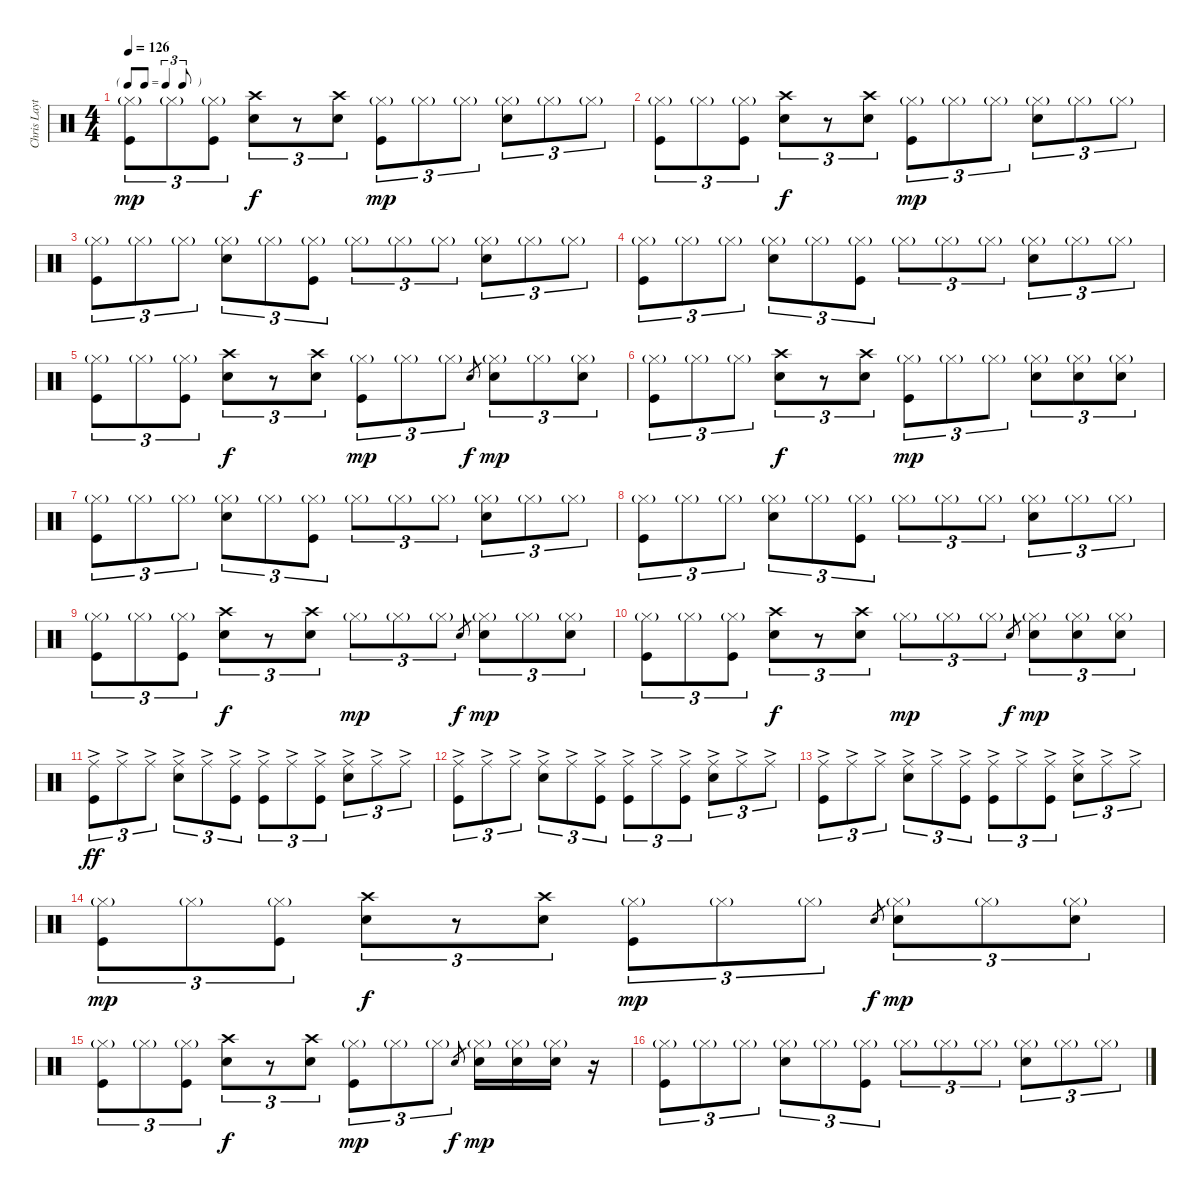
\track ("Chris Layton" "Chris Layt") {instrument percussion}
\staff {score}
\articulation defaults
\ts (4 4)
\tf triplet8th
\tempo 126
\clef neutral
\ks c
("Hi-Hat (closed)"{g} "Kick (hit)").8{tu (3 2) dy mp} "Hi-Hat (closed)"{g}.8{tu (3 2)} ("Hi-Hat (closed)"{g} "Kick (hit)").8{tu (3 2)} ("Crash high (hit)" "Electric Snare (hit)").8{tu (3 2) dy f} r.8{tu (3 2)} ("Crash high (hit)" "Electric Snare (hit)").8{tu (3 2)} ("Hi-Hat (closed)"{g} "Kick (hit)").8{tu (3 2) dy mp} "Hi-Hat (closed)"{g}.8{tu (3 2)} "Hi-Hat (closed)"{g}.8{tu (3 2)} ("Hi-Hat (closed)"{g} "Electric Snare (hit)").8{tu (3 2)} "Hi-Hat (closed)"{g}.8{tu (3 2)} "Hi-Hat (closed)"{g}.8{tu (3 2)} |
("Hi-Hat (closed)"{g} "Kick (hit)").8{tu (3 2)} "Hi-Hat (closed)"{g}.8{tu (3 2)} ("Hi-Hat (closed)"{g} "Kick (hit)").8{tu (3 2)} ("Crash high (hit)" "Electric Snare (hit)").8{tu (3 2) dy f} r.8{tu (3 2)} ("Crash high (hit)" "Electric Snare (hit)").8{tu (3 2)} ("Hi-Hat (closed)"{g} "Kick (hit)").8{tu (3 2) dy mp} "Hi-Hat (closed)"{g}.8{tu (3 2)} "Hi-Hat (closed)"{g}.8{tu (3 2)} ("Hi-Hat (closed)"{g} "Electric Snare (hit)").8{tu (3 2)} "Hi-Hat (closed)"{g}.8{tu (3 2)} "Hi-Hat (closed)"{g}.8{tu (3 2)} |
("Hi-Hat (closed)"{g} "Kick (hit)").8{tu (3 2)} "Hi-Hat (closed)"{g}.8{tu (3 2)} "Hi-Hat (closed)"{g}.8{tu (3 2)} ("Hi-Hat (closed)"{g} "Electric Snare (hit)").8{tu (3 2)} "Hi-Hat (closed)"{g}.8{tu (3 2)} ("Hi-Hat (closed)"{g} "Kick (hit)").8{tu (3 2)} "Hi-Hat (closed)"{g}.8{tu (3 2)} "Hi-Hat (closed)"{g}.8{tu (3 2)} "Hi-Hat (closed)"{g}.8{tu (3 2)} ("Hi-Hat (closed)"{g} "Electric Snare (hit)").8{tu (3 2)} "Hi-Hat (closed)"{g}.8{tu (3 2)} "Hi-Hat (closed)"{g}.8{tu (3 2)} |
("Hi-Hat (closed)"{g} "Kick (hit)").8{tu (3 2)} "Hi-Hat (closed)"{g}.8{tu (3 2)} "Hi-Hat (closed)"{g}.8{tu (3 2)} ("Hi-Hat (closed)"{g} "Electric Snare (hit)").8{tu (3 2)} "Hi-Hat (closed)"{g}.8{tu (3 2)} ("Hi-Hat (closed)"{g} "Kick (hit)").8{tu (3 2)} "Hi-Hat (closed)"{g}.8{tu (3 2)} "Hi-Hat (closed)"{g}.8{tu (3 2)} "Hi-Hat (closed)"{g}.8{tu (3 2)} ("Hi-Hat (closed)"{g} "Electric Snare (hit)").8{tu (3 2)} "Hi-Hat (closed)"{g}.8{tu (3 2)} "Hi-Hat (closed)"{g}.8{tu (3 2)} |
("Hi-Hat (closed)"{g} "Kick (hit)").8{tu (3 2)} "Hi-Hat (closed)"{g}.8{tu (3 2)} ("Hi-Hat (closed)"{g} "Kick (hit)").8{tu (3 2)} ("Crash high (hit)" "Electric Snare (hit)").8{tu (3 2) dy f} r.8{tu (3 2)} ("Crash high (hit)" "Electric Snare (hit)").8{tu (3 2)} ("Hi-Hat (closed)"{g} "Kick (hit)").8{tu (3 2) dy mp} "Hi-Hat (closed)"{g}.8{tu (3 2)} "Hi-Hat (closed)"{g}.8{tu (3 2)} "Electric Snare (hit)".8{gr dy f} ("Hi-Hat (closed)"{g} "Electric Snare (hit)").8{tu (3 2) dy mp} "Hi-Hat (closed)"{g}.8{tu (3 2)} ("Hi-Hat (closed)"{g} "Electric Snare (hit)").8{tu (3 2)} |
("Hi-Hat (closed)"{g} "Kick (hit)").8{tu (3 2)} "Hi-Hat (closed)"{g}.8{tu (3 2)} "Hi-Hat (closed)"{g}.8{tu (3 2)} ("Crash high (hit)" "Electric Snare (hit)").8{tu (3 2) dy f} r.8{tu (3 2)} ("Crash high (hit)" "Electric Snare (hit)").8{tu (3 2)} ("Hi-Hat (closed)"{g} "Kick (hit)").8{tu (3 2) dy mp} "Hi-Hat (closed)"{g}.8{tu (3 2)} "Hi-Hat (closed)"{g}.8{tu (3 2)} ("Hi-Hat (closed)"{g} "Electric Snare (hit)").8{tu (3 2)} ("Hi-Hat (closed)"{g} "Electric Snare (hit)").8{tu (3 2)} ("Hi-Hat (closed)"{g} "Electric Snare (hit)").8{tu (3 2)} |
("Hi-Hat (closed)"{g} "Kick (hit)").8{tu (3 2)} "Hi-Hat (closed)"{g}.8{tu (3 2)} "Hi-Hat (closed)"{g}.8{tu (3 2)} ("Hi-Hat (closed)"{g} "Electric Snare (hit)").8{tu (3 2)} "Hi-Hat (closed)"{g}.8{tu (3 2)} ("Hi-Hat (closed)"{g} "Kick (hit)").8{tu (3 2)} "Hi-Hat (closed)"{g}.8{tu (3 2)} "Hi-Hat (closed)"{g}.8{tu (3 2)} "Hi-Hat (closed)"{g}.8{tu (3 2)} ("Hi-Hat (closed)"{g} "Electric Snare (hit)").8{tu (3 2)} "Hi-Hat (closed)"{g}.8{tu (3 2)} "Hi-Hat (closed)"{g}.8{tu (3 2)} |
("Hi-Hat (closed)"{g} "Kick (hit)").8{tu (3 2)} "Hi-Hat (closed)"{g}.8{tu (3 2)} "Hi-Hat (closed)"{g}.8{tu (3 2)} ("Hi-Hat (closed)"{g} "Electric Snare (hit)").8{tu (3 2)} "Hi-Hat (closed)"{g}.8{tu (3 2)} ("Hi-Hat (closed)"{g} "Kick (hit)").8{tu (3 2)} "Hi-Hat (closed)"{g}.8{tu (3 2)} "Hi-Hat (closed)"{g}.8{tu (3 2)} "Hi-Hat (closed)"{g}.8{tu (3 2)} ("Hi-Hat (closed)"{g} "Electric Snare (hit)").8{tu (3 2)} "Hi-Hat (closed)"{g}.8{tu (3 2)} "Hi-Hat (closed)"{g}.8{tu (3 2)} |
("Hi-Hat (closed)"{g} "Kick (hit)").8{tu (3 2)} "Hi-Hat (closed)"{g}.8{tu (3 2)} ("Hi-Hat (closed)"{g} "Kick (hit)").8{tu (3 2)} ("Crash high (hit)" "Electric Snare (hit)").8{tu (3 2) dy f} r.8{tu (3 2)} ("Crash high (hit)" "Electric Snare (hit)").8{tu (3 2)} "Hi-Hat (closed)"{g}.8{tu (3 2) dy mp} "Hi-Hat (closed)"{g}.8{tu (3 2)} "Hi-Hat (closed)"{g}.8{tu (3 2)} "Electric Snare (hit)".8{gr dy f} ("Hi-Hat (closed)"{g} "Electric Snare (hit)").8{tu (3 2) dy mp} "Hi-Hat (closed)"{g}.8{tu (3 2)} ("Hi-Hat (closed)"{g} "Electric Snare (hit)").8{tu (3 2)} |
("Hi-Hat (closed)"{g} "Kick (hit)").8{tu (3 2)} "Hi-Hat (closed)"{g}.8{tu (3 2)} ("Hi-Hat (closed)"{g} "Kick (hit)").8{tu (3 2)} ("Crash high (hit)" "Electric Snare (hit)").8{tu (3 2) dy f} r.8{tu (3 2)} ("Crash high (hit)" "Electric Snare (hit)").8{tu (3 2)} "Hi-Hat (closed)"{g}.8{tu (3 2) dy mp} "Hi-Hat (closed)"{g}.8{tu (3 2)} "Hi-Hat (closed)"{g}.8{tu (3 2)} "Electric Snare (hit)".8{gr dy f} ("Hi-Hat (closed)"{g} "Electric Snare (hit)").8{tu (3 2) dy mp} ("Hi-Hat (closed)"{g} "Electric Snare (hit)").8{tu (3 2)} ("Hi-Hat (closed)"{g} "Electric Snare (hit)").8{tu (3 2)} |
("Ride (middle)"{ac} "Kick (hit)").8{tu (3 2) dy ff} "Ride (middle)"{ac}.8{tu (3 2)} "Ride (middle)"{ac}.8{tu (3 2)} ("Ride (middle)"{ac} "Electric Snare (hit)").8{tu (3 2)} "Ride (middle)"{ac}.8{tu (3 2)} ("Ride (middle)"{ac} "Kick (hit)").8{tu (3 2)} ("Ride (middle)"{ac} "Kick (hit)").8{tu (3 2)} "Ride (middle)"{ac}.8{tu (3 2)} ("Ride (middle)"{ac} "Kick (hit)").8{tu (3 2)} ("Ride (middle)"{ac} "Electric Snare (hit)").8{tu (3 2)} "Ride (middle)"{ac}.8{tu (3 2)} "Ride (middle)"{ac}.8{tu (3 2)} |
("Ride (middle)"{ac} "Kick (hit)").8{tu (3 2)} "Ride (middle)"{ac}.8{tu (3 2)} "Ride (middle)"{ac}.8{tu (3 2)} ("Ride (middle)"{ac} "Electric Snare (hit)").8{tu (3 2)} "Ride (middle)"{ac}.8{tu (3 2)} ("Ride (middle)"{ac} "Kick (hit)").8{tu (3 2)} ("Ride (middle)"{ac} "Kick (hit)").8{tu (3 2)} "Ride (middle)"{ac}.8{tu (3 2)} ("Ride (middle)"{ac} "Kick (hit)").8{tu (3 2)} ("Ride (middle)"{ac} "Electric Snare (hit)").8{tu (3 2)} "Ride (middle)"{ac}.8{tu (3 2)} "Ride (middle)"{ac}.8{tu (3 2)} |
("Ride (middle)"{ac} "Kick (hit)").8{tu (3 2)} "Ride (middle)"{ac}.8{tu (3 2)} "Ride (middle)"{ac}.8{tu (3 2)} ("Ride (middle)"{ac} "Electric Snare (hit)").8{tu (3 2)} "Ride (middle)"{ac}.8{tu (3 2)} ("Ride (middle)"{ac} "Kick (hit)").8{tu (3 2)} ("Ride (middle)"{ac} "Kick (hit)").8{tu (3 2)} "Ride (middle)"{ac}.8{tu (3 2)} ("Ride (middle)"{ac} "Kick (hit)").8{tu (3 2)} ("Ride (middle)"{ac} "Electric Snare (hit)").8{tu (3 2)} "Ride (middle)"{ac}.8{tu (3 2)} "Ride (middle)"{ac}.8{tu (3 2)} |
("Hi-Hat (closed)"{g} "Kick (hit)").8{tu (3 2) dy mp} "Hi-Hat (closed)"{g}.8{tu (3 2)} ("Hi-Hat (closed)"{g} "Kick (hit)").8{tu (3 2)} ("Crash high (hit)" "Electric Snare (hit)").8{tu (3 2) dy f} r.8{tu (3 2)} ("Crash high (hit)" "Electric Snare (hit)").8{tu (3 2)} ("Hi-Hat (closed)"{g} "Kick (hit)").8{tu (3 2) dy mp} "Hi-Hat (closed)"{g}.8{tu (3 2)} "Hi-Hat (closed)"{g}.8{tu (3 2)} "Electric Snare (hit)".8{gr dy f} ("Hi-Hat (closed)"{g} "Electric Snare (hit)").8{tu (3 2) dy mp} "Hi-Hat (closed)"{g}.8{tu (3 2)} ("Hi-Hat (closed)"{g} "Electric Snare (hit)").8{tu (3 2)} |
("Hi-Hat (closed)"{g} "Kick (hit)").8{tu (3 2)} "Hi-Hat (closed)"{g}.8{tu (3 2)} ("Hi-Hat (closed)"{g} "Kick (hit)").8{tu (3 2)} ("Crash high (hit)" "Electric Snare (hit)").8{tu (3 2) dy f} r.8{tu (3 2)} ("Crash high (hit)" "Electric Snare (hit)").8{tu (3 2)} ("Hi-Hat (closed)"{g} "Kick (hit)").8{tu (3 2) dy mp} "Hi-Hat (closed)"{g}.8{tu (3 2)} "Hi-Hat (closed)"{g}.8{tu (3 2)} "Electric Snare (hit)".8{gr dy f} ("Hi-Hat (closed)"{g} "Electric Snare (hit)").16{dy mp} ("Hi-Hat (closed)"{g} "Electric Snare (hit)").16 ("Hi-Hat (closed)"{g} "Electric Snare (hit)").16 r.16 |
("Hi-Hat (closed)"{g} "Kick (hit)").8{tu (3 2)} "Hi-Hat (closed)"{g}.8{tu (3 2)} "Hi-Hat (closed)"{g}.8{tu (3 2)} ("Hi-Hat (closed)"{g} "Electric Snare (hit)").8{tu (3 2)} "Hi-Hat (closed)"{g}.8{tu (3 2)} ("Hi-Hat (closed)"{g} "Kick (hit)").8{tu (3 2)} "Hi-Hat (closed)"{g}.8{tu (3 2)} "Hi-Hat (closed)"{g}.8{tu (3 2)} "Hi-Hat (closed)"{g}.8{tu (3 2)} ("Hi-Hat (closed)"{g} "Electric Snare (hit)").8{tu (3 2)} "Hi-Hat (closed)"{g}.8{tu (3 2)} "Hi-Hat (closed)"{g}.8{tu (3 2)}
